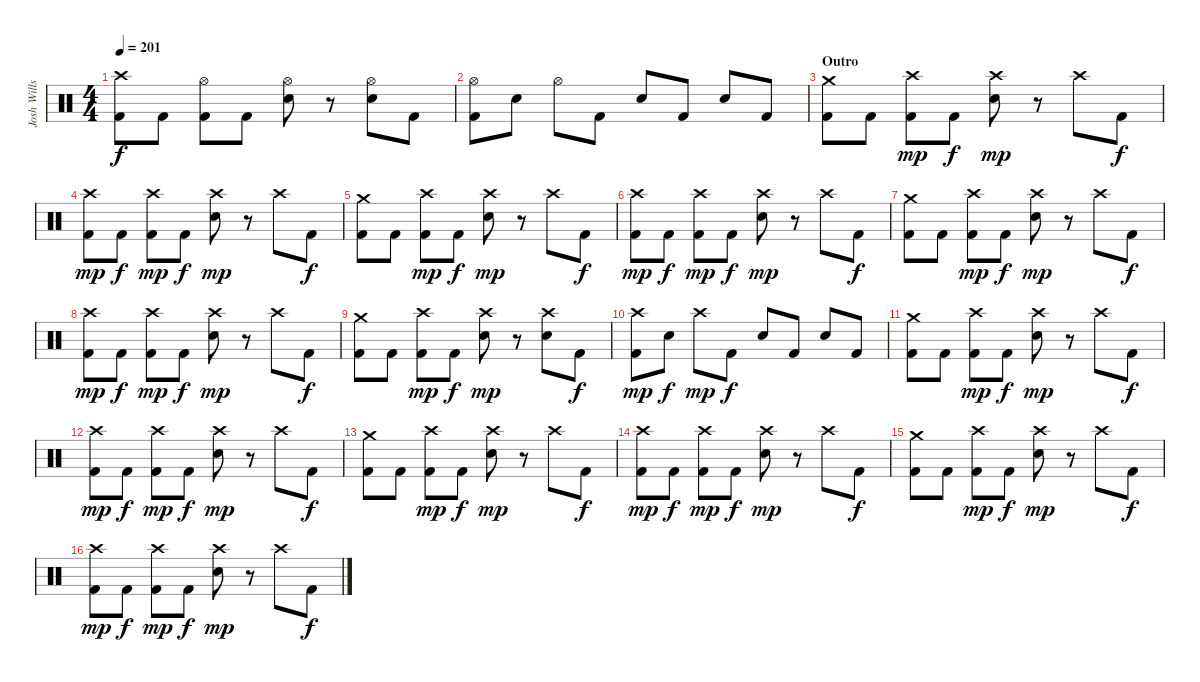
\track ("Josh Wills" "Josh Wills") {instrument percussion}
\staff {score}
\articulation defaults
\ts (4 4)
\tempo 201
\clef neutral
\ks c
("Crash high (hit)" "Kick (hit) 2").8{dy f} "Kick (hit) 2".8 ("Hi-Hat (open)" "Kick (hit) 2").8 "Kick (hit) 2".8 ("Hi-Hat (open)" "Snare (hit) 2").8 r.8 ("Hi-Hat (open)" "Snare (hit) 2").8 "Kick (hit) 2".8 |
("Hi-Hat (open)" "Kick (hit) 2").8 "Snare (hit) 2".8 "Hi-Hat (open)".8 "Kick (hit) 2".8 "Snare (hit) 2".8 "Kick (hit) 2".8 "Snare (hit) 2".8 "Kick (hit) 2".8 |
\section ("" "Outro")
("Crash medium (hit)" "Kick (hit) 2").8 "Kick (hit) 2".8 ("Crash high (hit)" "Kick (hit) 2").8{dy mp} "Kick (hit) 2".8{dy f} ("Crash high (hit)" "Snare (hit) 2").8{dy mp} r.8 "Crash high (hit)".8 "Kick (hit) 2".8{dy f} |
("Crash high (hit)" "Kick (hit) 2").8{dy mp} "Kick (hit) 2".8{dy f} ("Crash high (hit)" "Kick (hit) 2").8{dy mp} "Kick (hit) 2".8{dy f} ("Crash high (hit)" "Snare (hit) 2").8{dy mp} r.8 "Crash high (hit)".8 "Kick (hit) 2".8{dy f} |
("Crash medium (hit)" "Kick (hit) 2").8 "Kick (hit) 2".8 ("Crash high (hit)" "Kick (hit) 2").8{dy mp} "Kick (hit) 2".8{dy f} ("Crash high (hit)" "Snare (hit) 2").8{dy mp} r.8 "Crash high (hit)".8 "Kick (hit) 2".8{dy f} |
("Crash high (hit)" "Kick (hit) 2").8{dy mp} "Kick (hit) 2".8{dy f} ("Crash high (hit)" "Kick (hit) 2").8{dy mp} "Kick (hit) 2".8{dy f} ("Crash high (hit)" "Snare (hit) 2").8{dy mp} r.8 "Crash high (hit)".8 "Kick (hit) 2".8{dy f} |
("Crash medium (hit)" "Kick (hit) 2").8 "Kick (hit) 2".8 ("Crash high (hit)" "Kick (hit) 2").8{dy mp} "Kick (hit) 2".8{dy f} ("Crash high (hit)" "Snare (hit) 2").8{dy mp} r.8 "Crash high (hit)".8 "Kick (hit) 2".8{dy f} |
("Crash high (hit)" "Kick (hit) 2").8{dy mp} "Kick (hit) 2".8{dy f} ("Crash high (hit)" "Kick (hit) 2").8{dy mp} "Kick (hit) 2".8{dy f} ("Crash high (hit)" "Snare (hit) 2").8{dy mp} r.8 "Crash high (hit)".8 "Kick (hit) 2".8{dy f} |
("Crash medium (hit)" "Kick (hit) 2").8 "Kick (hit) 2".8 ("Crash high (hit)" "Kick (hit) 2").8{dy mp} "Kick (hit) 2".8{dy f} ("Crash high (hit)" "Snare (hit) 2").8{dy mp} r.8 ("Crash high (hit)" "Snare (hit) 2").8 "Kick (hit) 2".8{dy f} |
("Crash high (hit)" "Kick (hit) 2").8{dy mp} "Snare (hit) 2".8{dy f} "Crash high (hit)".8{dy mp} "Kick (hit) 2".8{dy f} "Snare (hit) 2".8 "Kick (hit) 2".8 "Snare (hit) 2".8 "Kick (hit) 2".8 |
("Crash medium (hit)" "Kick (hit) 2").8 "Kick (hit) 2".8 ("Crash high (hit)" "Kick (hit) 2").8{dy mp} "Kick (hit) 2".8{dy f} ("Crash high (hit)" "Snare (hit) 2").8{dy mp} r.8 "Crash high (hit)".8 "Kick (hit) 2".8{dy f} |
("Crash high (hit)" "Kick (hit) 2").8{dy mp} "Kick (hit) 2".8{dy f} ("Crash high (hit)" "Kick (hit) 2").8{dy mp} "Kick (hit) 2".8{dy f} ("Crash high (hit)" "Snare (hit) 2").8{dy mp} r.8 "Crash high (hit)".8 "Kick (hit) 2".8{dy f} |
("Crash medium (hit)" "Kick (hit) 2").8 "Kick (hit) 2".8 ("Crash high (hit)" "Kick (hit) 2").8{dy mp} "Kick (hit) 2".8{dy f} ("Crash high (hit)" "Snare (hit) 2").8{dy mp} r.8 "Crash high (hit)".8 "Kick (hit) 2".8{dy f} |
("Crash high (hit)" "Kick (hit) 2").8{dy mp} "Kick (hit) 2".8{dy f} ("Crash high (hit)" "Kick (hit) 2").8{dy mp} "Kick (hit) 2".8{dy f} ("Crash high (hit)" "Snare (hit) 2").8{dy mp} r.8 "Crash high (hit)".8 "Kick (hit) 2".8{dy f} |
("Crash medium (hit)" "Kick (hit) 2").8 "Kick (hit) 2".8 ("Crash high (hit)" "Kick (hit) 2").8{dy mp} "Kick (hit) 2".8{dy f} ("Crash high (hit)" "Snare (hit) 2").8{dy mp} r.8 "Crash high (hit)".8 "Kick (hit) 2".8{dy f} |
("Crash high (hit)" "Kick (hit) 2").8{dy mp} "Kick (hit) 2".8{dy f} ("Crash high (hit)" "Kick (hit) 2").8{dy mp} "Kick (hit) 2".8{dy f} ("Crash high (hit)" "Snare (hit) 2").8{dy mp} r.8 "Crash high (hit)".8 "Kick (hit) 2".8{dy f}
